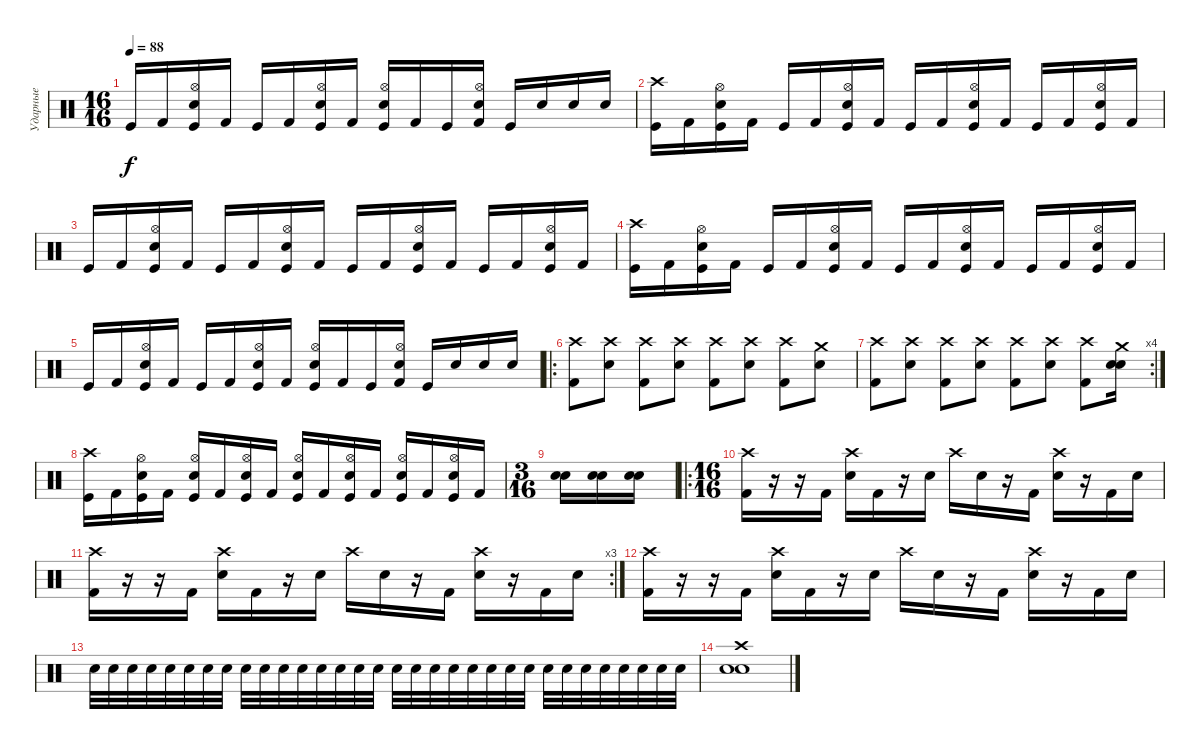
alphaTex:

\track ("Ударные" "Ударные") {instrument percussion}
\staff {score}
\articulation defaults
\ts (16 16)
\tempo 88
\clef neutral
\ks c "Kick (hit)".16{dy f} "Kick (hit) 2".16
("Hi-Hat (open)" "Kick (hit)" "Electric Snare (hit)").16 "Kick (hit) 2".16 "Kick (hit)".16 "Kick (hit) 2".16 ("Hi-Hat (open)" "Kick (hit)" "Electric Snare (hit)").16 "Kick (hit) 2".16 ("Electric Snare (hit)" "Kick (hit)" "Hi-Hat (open)").16 "Kick (hit) 2".16 "Kick (hit)".16 ("Electric Snare (hit)" "Kick (hit) 2" "Hi-Hat (open)").16 "Kick (hit)".16 "Snare (hit) 2".16 "Snare (hit) 2".16 "Snare (hit) 2".16 |
("Crash high (hit)" "Kick (hit)").16 "Kick (hit) 2".16 ("Hi-Hat (open)" "Kick (hit)" "Electric Snare (hit)").16 "Kick (hit) 2".16 "Kick (hit)".16 "Kick (hit) 2".16 ("Hi-Hat (open)" "Kick (hit)" "Electric Snare (hit)").16 "Kick (hit) 2".16 "Kick (hit)".16 "Kick (hit) 2".16 ("Hi-Hat (open)" "Kick (hit)" "Electric Snare (hit)").16 "Kick (hit) 2".16 "Kick (hit)".16 "Kick (hit) 2".16 ("Hi-Hat (open)" "Kick (hit)" "Electric Snare (hit)").16 "Kick (hit) 2".16 |
"Kick (hit)".16 "Kick (hit) 2".16 ("Hi-Hat (open)" "Kick (hit)" "Electric Snare (hit)").16 "Kick (hit) 2".16 "Kick (hit)".16 "Kick (hit) 2".16 ("Hi-Hat (open)" "Kick (hit)" "Electric Snare (hit)").16 "Kick (hit) 2".16 "Kick (hit)".16 "Kick (hit) 2".16 ("Electric Snare (hit)" "Kick (hit)" "Hi-Hat (open)").16 "Kick (hit) 2".16 "Kick (hit)".16 "Kick (hit) 2".16 ("Electric Snare (hit)" "Kick (hit)" "Hi-Hat (open)").16 "Kick (hit) 2".16 |
("Crash high (hit)" "Kick (hit)").16 "Kick (hit) 2".16 ("Hi-Hat (open)" "Kick (hit)" "Electric Snare (hit)").16 "Kick (hit) 2".16 "Kick (hit)".16 "Kick (hit) 2".16 ("Hi-Hat (open)" "Kick (hit)" "Electric Snare (hit)").16 "Kick (hit) 2".16 "Kick (hit)".16 "Kick (hit) 2".16 ("Hi-Hat (open)" "Kick (hit)" "Electric Snare (hit)").16 "Kick (hit) 2".16 "Kick (hit)".16 "Kick (hit) 2".16 ("Hi-Hat (open)" "Kick (hit)" "Electric Snare (hit)").16 "Kick (hit) 2".16 |
"Kick (hit)".16 "Kick (hit) 2".16 ("Hi-Hat (open)" "Kick (hit)" "Electric Snare (hit)").16 "Kick (hit) 2".16 "Kick (hit)".16 "Kick (hit) 2".16 ("Hi-Hat (open)" "Kick (hit)" "Electric Snare (hit)").16 "Kick (hit) 2".16 ("Electric Snare (hit)" "Kick (hit)" "Hi-Hat (open)").16 "Kick (hit) 2".16 "Kick (hit)".16 ("Electric Snare (hit)" "Kick (hit) 2" "Hi-Hat (open)").16 "Kick (hit)".16 "Snare (hit) 2".16 "Snare (hit) 2".16 "Snare (hit) 2".16 |
\ro
("Crash high (hit)" "Kick (hit) 2").8 ("Crash high (hit)" "Snare (hit) 2").8 ("Crash high (hit)" "Kick (hit) 2").8 ("Crash high (hit)" "Snare (hit) 2").8 ("Crash high (hit)" "Kick (hit) 2").8 ("Crash high (hit)" "Snare (hit) 2").8 ("Crash high (hit)" "Kick (hit) 2").8 ("Crash medium (hit)" "Snare (hit) 2").8 |
\rc 4
("Crash high (hit)" "Kick (hit) 2").8 ("Crash high (hit)" "Snare (hit) 2").8 ("Crash high (hit)" "Kick (hit) 2").8 ("Crash high (hit)" "Snare (hit) 2").8 ("Crash high (hit)" "Kick (hit) 2").8 ("Crash high (hit)" "Snare (hit) 2").8 ("Crash high (hit)" "Kick (hit) 2").8 ("Crash medium (hit)" "Snare (hit) 2" "Electric Snare (hit)").16 |
("Crash high (hit)" "Kick (hit)").16 "Kick (hit) 2".16 ("Hi-Hat (open)" "Kick (hit)" "Electric Snare (hit)").16 "Kick (hit) 2".16 ("Hi-Hat (open)" "Kick (hit)" "Electric Snare (hit)").16 "Kick (hit) 2".16 ("Hi-Hat (open)" "Kick (hit)" "Electric Snare (hit)").16 "Kick (hit) 2".16 ("Electric Snare (hit)" "Kick (hit)" "Hi-Hat (open)").16 "Kick (hit) 2".16 ("Electric Snare (hit)" "Kick (hit)" "Hi-Hat (open)").16 "Kick (hit) 2".16 ("Hi-Hat (open)" "Kick (hit)" "Electric Snare (hit)").16 "Kick (hit) 2".16 ("Hi-Hat (open)" "Kick (hit)" "Electric Snare (hit)").16 "Kick (hit) 2".16 |
\ts (3 16)
("Snare (hit) 2" "Electric Snare (hit)").16 ("Snare (hit) 2" "Electric Snare (hit)").16 ("Snare (hit) 2" "Electric Snare (hit)").16 |
\ro
\ts (16 16)
("Crash high (hit)" "Kick (hit) 2").16 r.16 r.16 "Kick (hit) 2".16 ("Crash high (hit)" "Electric Snare (hit)").16 "Kick (hit) 2".16 r.16 "Electric Snare (hit)".16 "Crash high (hit)".16 "Electric Snare (hit)".16 r.16 "Kick (hit) 2".16 ("Crash high (hit)" "Electric Snare (hit)").16 r.16 "Kick (hit) 2".16 "Electric Snare (hit)".16 |
\rc 3
("Crash high (hit)" "Kick (hit) 2").16 r.16 r.16 "Kick (hit) 2".16 ("Crash high (hit)" "Electric Snare (hit)").16 "Kick (hit) 2".16 r.16 "Electric Snare (hit)".16 "Crash high (hit)".16 "Electric Snare (hit)".16 r.16 "Kick (hit) 2".16 ("Crash high (hit)" "Electric Snare (hit)").16 r.16 "Kick (hit) 2".16 "Electric Snare (hit)".16 |
("Crash high (hit)" "Kick (hit) 2").16 r.16 r.16 "Kick (hit) 2".16 ("Crash high (hit)" "Electric Snare (hit)").16 "Kick (hit) 2".16 r.16 "Electric Snare (hit)".16 "Crash high (hit)".16 "Electric Snare (hit)".16 r.16 "Kick (hit) 2".16 ("Crash high (hit)" "Electric Snare (hit)").16 r.16 "Kick (hit) 2".16 "Electric Snare (hit)".16 |
"Electric Snare (hit)".32 "Electric Snare (hit)".32 "Electric Snare (hit)".32 "Electric Snare (hit)".32 "Electric Snare (hit)".32 "Electric Snare (hit)".32 "Electric Snare (hit)".32 "Electric Snare (hit)".32 "Electric Snare (hit)".32 "Electric Snare (hit)".32 "Electric Snare (hit)".32 "Electric Snare (hit)".32 "Electric Snare (hit)".32 "Electric Snare (hit)".32 "Electric Snare (hit)".32 "Electric Snare (hit)".32 "Electric Snare (hit)".32 "Electric Snare (hit)".32 "Electric Snare (hit)".32 "Electric Snare (hit)".32 "Electric Snare (hit)".32 "Electric Snare (hit)".32 "Electric Snare (hit)".32 "Electric Snare (hit)".32 "Electric Snare (hit)".32 "Electric Snare (hit)".32 "Electric Snare (hit)".32 "Electric Snare (hit)".32 "Electric Snare (hit)".32 "Electric Snare (hit)".32 "Electric Snare (hit)".32 "Electric Snare (hit)".32 |
("Snare (hit) 2" "Electric Snare (hit)" "Crash high (hit)").1
